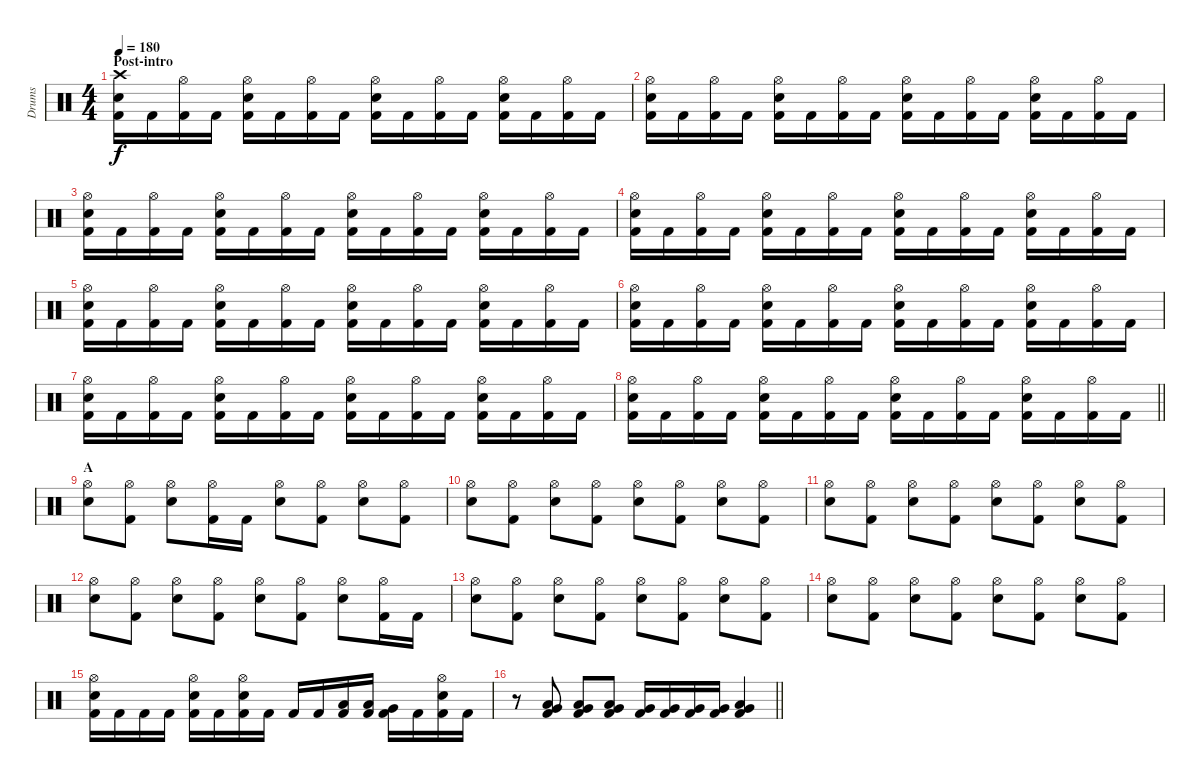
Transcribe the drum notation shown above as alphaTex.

\track ("Drums" "Drums") {instrument percussion}
\staff {score}
\articulation defaults
\ts (4 4)
\section ("" "Post-intro")
\tempo 180
\clef neutral
\ks c
("Crash high (hit)" "Electric Snare (hit)" "Kick (hit) 2").16{dy f} "Kick (hit) 2".16 ("Hi-Hat (open)" "Kick (hit) 2").16 "Kick (hit) 2".16 ("Hi-Hat (open)" "Electric Snare (hit)" "Kick (hit) 2").16 "Kick (hit) 2".16 ("Hi-Hat (open)" "Kick (hit) 2").16 "Kick (hit) 2".16 ("Hi-Hat (open)" "Electric Snare (hit)" "Kick (hit) 2").16 "Kick (hit) 2".16 ("Hi-Hat (open)" "Kick (hit) 2").16 "Kick (hit) 2".16 ("Hi-Hat (open)" "Electric Snare (hit)" "Kick (hit) 2").16 "Kick (hit) 2".16 ("Hi-Hat (open)" "Kick (hit) 2").16 "Kick (hit) 2".16 |
("Hi-Hat (open)" "Electric Snare (hit)" "Kick (hit) 2").16 "Kick (hit) 2".16 ("Hi-Hat (open)" "Kick (hit) 2").16 "Kick (hit) 2".16 ("Hi-Hat (open)" "Electric Snare (hit)" "Kick (hit) 2").16 "Kick (hit) 2".16 ("Hi-Hat (open)" "Kick (hit) 2").16 "Kick (hit) 2".16 ("Hi-Hat (open)" "Electric Snare (hit)" "Kick (hit) 2").16 "Kick (hit) 2".16 ("Hi-Hat (open)" "Kick (hit) 2").16 "Kick (hit) 2".16 ("Hi-Hat (open)" "Electric Snare (hit)" "Kick (hit) 2").16 "Kick (hit) 2".16 ("Hi-Hat (open)" "Kick (hit) 2").16 "Kick (hit) 2".16 |
("Hi-Hat (open)" "Electric Snare (hit)" "Kick (hit) 2").16 "Kick (hit) 2".16 ("Hi-Hat (open)" "Kick (hit) 2").16 "Kick (hit) 2".16 ("Hi-Hat (open)" "Electric Snare (hit)" "Kick (hit) 2").16 "Kick (hit) 2".16 ("Hi-Hat (open)" "Kick (hit) 2").16 "Kick (hit) 2".16 ("Hi-Hat (open)" "Electric Snare (hit)" "Kick (hit) 2").16 "Kick (hit) 2".16 ("Hi-Hat (open)" "Kick (hit) 2").16 "Kick (hit) 2".16 ("Hi-Hat (open)" "Electric Snare (hit)" "Kick (hit) 2").16 "Kick (hit) 2".16 ("Hi-Hat (open)" "Kick (hit) 2").16 "Kick (hit) 2".16 |
("Hi-Hat (open)" "Electric Snare (hit)" "Kick (hit) 2").16 "Kick (hit) 2".16 ("Hi-Hat (open)" "Kick (hit) 2").16 "Kick (hit) 2".16 ("Hi-Hat (open)" "Electric Snare (hit)" "Kick (hit) 2").16 "Kick (hit) 2".16 ("Hi-Hat (open)" "Kick (hit) 2").16 "Kick (hit) 2".16 ("Hi-Hat (open)" "Electric Snare (hit)" "Kick (hit) 2").16 "Kick (hit) 2".16 ("Hi-Hat (open)" "Kick (hit) 2").16 "Kick (hit) 2".16 ("Hi-Hat (open)" "Electric Snare (hit)" "Kick (hit) 2").16 "Kick (hit) 2".16 ("Hi-Hat (open)" "Kick (hit) 2").16 "Kick (hit) 2".16 |
("Hi-Hat (open)" "Electric Snare (hit)" "Kick (hit) 2").16 "Kick (hit) 2".16 ("Hi-Hat (open)" "Kick (hit) 2").16 "Kick (hit) 2".16 ("Hi-Hat (open)" "Electric Snare (hit)" "Kick (hit) 2").16 "Kick (hit) 2".16 ("Hi-Hat (open)" "Kick (hit) 2").16 "Kick (hit) 2".16 ("Hi-Hat (open)" "Electric Snare (hit)" "Kick (hit) 2").16 "Kick (hit) 2".16 ("Hi-Hat (open)" "Kick (hit) 2").16 "Kick (hit) 2".16 ("Hi-Hat (open)" "Electric Snare (hit)" "Kick (hit) 2").16 "Kick (hit) 2".16 ("Hi-Hat (open)" "Kick (hit) 2").16 "Kick (hit) 2".16 |
("Hi-Hat (open)" "Electric Snare (hit)" "Kick (hit) 2").16 "Kick (hit) 2".16 ("Hi-Hat (open)" "Kick (hit) 2").16 "Kick (hit) 2".16 ("Hi-Hat (open)" "Electric Snare (hit)" "Kick (hit) 2").16 "Kick (hit) 2".16 ("Hi-Hat (open)" "Kick (hit) 2").16 "Kick (hit) 2".16 ("Hi-Hat (open)" "Electric Snare (hit)" "Kick (hit) 2").16 "Kick (hit) 2".16 ("Hi-Hat (open)" "Kick (hit) 2").16 "Kick (hit) 2".16 ("Hi-Hat (open)" "Electric Snare (hit)" "Kick (hit) 2").16 "Kick (hit) 2".16 ("Hi-Hat (open)" "Kick (hit) 2").16 "Kick (hit) 2".16 |
("Hi-Hat (open)" "Electric Snare (hit)" "Kick (hit) 2").16 "Kick (hit) 2".16 ("Hi-Hat (open)" "Kick (hit) 2").16 "Kick (hit) 2".16 ("Hi-Hat (open)" "Electric Snare (hit)" "Kick (hit) 2").16 "Kick (hit) 2".16 ("Hi-Hat (open)" "Kick (hit) 2").16 "Kick (hit) 2".16 ("Hi-Hat (open)" "Electric Snare (hit)" "Kick (hit) 2").16 "Kick (hit) 2".16 ("Hi-Hat (open)" "Kick (hit) 2").16 "Kick (hit) 2".16 ("Hi-Hat (open)" "Electric Snare (hit)" "Kick (hit) 2").16 "Kick (hit) 2".16 ("Hi-Hat (open)" "Kick (hit) 2").16 "Kick (hit) 2".16 |
\barLineRight lightlight
("Hi-Hat (open)" "Electric Snare (hit)" "Kick (hit) 2").16 "Kick (hit) 2".16 ("Hi-Hat (open)" "Kick (hit) 2").16 "Kick (hit) 2".16 ("Hi-Hat (open)" "Electric Snare (hit)" "Kick (hit) 2").16 "Kick (hit) 2".16 ("Hi-Hat (open)" "Kick (hit) 2").16 "Kick (hit) 2".16 ("Hi-Hat (open)" "Electric Snare (hit)" "Kick (hit) 2").16 "Kick (hit) 2".16 ("Hi-Hat (open)" "Kick (hit) 2").16 "Kick (hit) 2".16 ("Hi-Hat (open)" "Electric Snare (hit)" "Kick (hit) 2").16 "Kick (hit) 2".16 ("Hi-Hat (open)" "Kick (hit) 2").16 "Kick (hit) 2".16 |
\section ("" "A")
("Hi-Hat (open)" "Electric Snare (hit)").8 ("Hi-Hat (open)" "Kick (hit) 2").8 ("Hi-Hat (open)" "Electric Snare (hit)").8 ("Hi-Hat (open)" "Kick (hit) 2").16 "Kick (hit) 2".16 ("Hi-Hat (open)" "Electric Snare (hit)").8 ("Hi-Hat (open)" "Kick (hit) 2").8 ("Hi-Hat (open)" "Electric Snare (hit)").8 ("Hi-Hat (open)" "Kick (hit) 2").8 |
("Hi-Hat (open)" "Electric Snare (hit)").8 ("Hi-Hat (open)" "Kick (hit) 2").8 ("Hi-Hat (open)" "Electric Snare (hit)").8 ("Hi-Hat (open)" "Kick (hit) 2").8 ("Hi-Hat (open)" "Electric Snare (hit)").8 ("Hi-Hat (open)" "Kick (hit) 2").8 ("Hi-Hat (open)" "Electric Snare (hit)").8 ("Hi-Hat (open)" "Kick (hit) 2").8 |
("Hi-Hat (open)" "Electric Snare (hit)").8 ("Hi-Hat (open)" "Kick (hit) 2").8 ("Hi-Hat (open)" "Electric Snare (hit)").8 ("Hi-Hat (open)" "Kick (hit) 2").8 ("Hi-Hat (open)" "Electric Snare (hit)").8 ("Hi-Hat (open)" "Kick (hit) 2").8 ("Hi-Hat (open)" "Electric Snare (hit)").8 ("Hi-Hat (open)" "Kick (hit) 2").8 |
("Hi-Hat (open)" "Electric Snare (hit)").8 ("Hi-Hat (open)" "Kick (hit) 2").8 ("Hi-Hat (open)" "Electric Snare (hit)").8 ("Hi-Hat (open)" "Kick (hit) 2").8 ("Hi-Hat (open)" "Electric Snare (hit)").8 ("Hi-Hat (open)" "Kick (hit) 2").8 ("Hi-Hat (open)" "Electric Snare (hit)").8 ("Hi-Hat (open)" "Kick (hit) 2").16 "Kick (hit) 2".16 |
("Hi-Hat (open)" "Electric Snare (hit)").8 ("Hi-Hat (open)" "Kick (hit) 2").8 ("Hi-Hat (open)" "Electric Snare (hit)").8 ("Hi-Hat (open)" "Kick (hit) 2").8 ("Hi-Hat (open)" "Electric Snare (hit)").8 ("Hi-Hat (open)" "Kick (hit) 2").8 ("Hi-Hat (open)" "Electric Snare (hit)").8 ("Hi-Hat (open)" "Kick (hit) 2").8 |
("Hi-Hat (open)" "Electric Snare (hit)").8 ("Hi-Hat (open)" "Kick (hit) 2").8 ("Hi-Hat (open)" "Electric Snare (hit)").8 ("Hi-Hat (open)" "Kick (hit) 2").8 ("Hi-Hat (open)" "Electric Snare (hit)").8 ("Hi-Hat (open)" "Kick (hit) 2").8 ("Hi-Hat (open)" "Electric Snare (hit)").8 ("Hi-Hat (open)" "Kick (hit) 2").8 |
("Hi-Hat (open)" "Electric Snare (hit)" "Kick (hit) 2").16 "Kick (hit) 2".16 "Kick (hit) 2".16 "Kick (hit) 2".16 ("Hi-Hat (open)" "Electric Snare (hit)" "Kick (hit) 2").16 "Kick (hit) 2".16 ("Hi-Hat (open)" "Electric Snare (hit)" "Kick (hit) 2").16 "Kick (hit) 2".16 "Kick (hit) 2".16 "Kick (hit) 2".16 ("Low Tom (hit)" "Kick (hit) 2").16 ("Low Tom (hit)" "Kick (hit) 2").16 ("Very Low Tom (hit)" "Kick (hit) 2").16 "Kick (hit) 2".16 ("Hi-Hat (open)" "Electric Snare (hit)" "Kick (hit) 2").16 "Kick (hit) 2".16 |
\barLineRight lightlight
r.8 ("Low Tom (hit)" "Very Low Tom (hit)" "Kick (hit) 2").8 ("Low Tom (hit)" "Very Low Tom (hit)" "Kick (hit) 2").8 ("Low Tom (hit)" "Very Low Tom (hit)" "Kick (hit) 2").8 ("Very Low Tom (hit)" "Kick (hit) 2").16 ("Very Low Tom (hit)" "Kick (hit) 2").16 ("Very Low Tom (hit)" "Kick (hit) 2").16 ("Very Low Tom (hit)" "Kick (hit) 2").16 ("Low Tom (hit)" "Very Low Tom (hit)" "Kick (hit) 2").4
